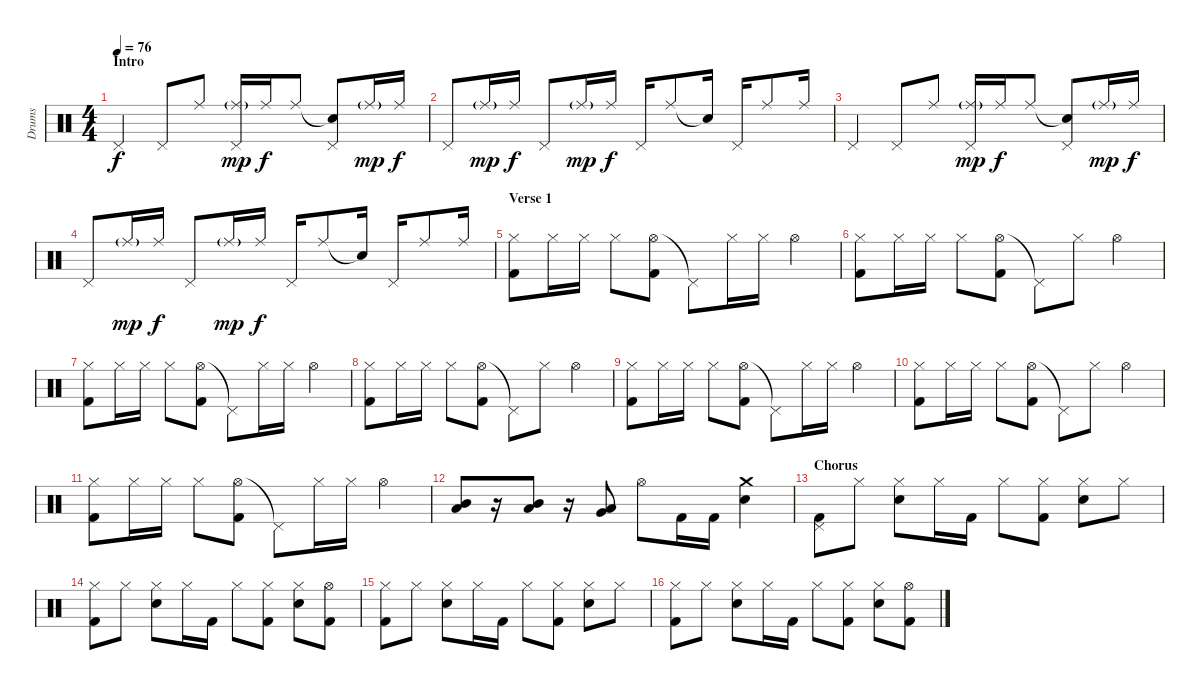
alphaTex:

\track ("Drums" "Drums") {instrument percussion}
\staff {score}
\articulation defaults
\ts (4 4)
\section ("" "Intro")
\tempo 76
\clef neutral
\ks c "Pedal Hi-Hat (hit)".4{dy f} "Pedal Hi-Hat (hit)".8 "Ride (middle)".8
("Ride (middle)"{g} "Pedal Hi-Hat (hit)").16{dy mp} "Ride (middle)".16{dy f} "Ride (middle)".8 ("Snare (hit)"{t} "Pedal Hi-Hat (hit)").8 "Ride (middle)"{g}.16{dy mp} "Ride (middle)".16{dy f} |
"Pedal Hi-Hat (hit)".8 "Ride (middle)"{g}.16{dy mp} "Ride (middle)".16{dy f} "Pedal Hi-Hat (hit)".8 "Ride (middle)"{g}.16{dy mp} "Ride (middle)".16{dy f} "Pedal Hi-Hat (hit)".16 "Ride (middle)".8 "Snare (hit)"{t}.16 "Pedal Hi-Hat (hit)".16 "Ride (middle)".8 "Ride (middle)".16 |
"Pedal Hi-Hat (hit)".4 "Pedal Hi-Hat (hit)".8 "Ride (middle)".8 ("Ride (middle)"{g} "Pedal Hi-Hat (hit)").16{dy mp} "Ride (middle)".16{dy f} "Ride (middle)".8 ("Snare (hit)"{t} "Pedal Hi-Hat (hit)").8 "Ride (middle)"{g}.16{dy mp} "Ride (middle)".16{dy f} |
"Pedal Hi-Hat (hit)".8 "Ride (middle)"{g}.16{dy mp} "Ride (middle)".16{dy f} "Pedal Hi-Hat (hit)".8 "Ride (middle)"{g}.16{dy mp} "Ride (middle)".16{dy f} "Pedal Hi-Hat (hit)".16 "Ride (middle)".8 "Snare (hit)"{t}.16 "Pedal Hi-Hat (hit)".16 "Ride (middle)".8 "Ride (middle)".16 |
\section ("" "Verse 1")
("Hi-Hat (closed)" "Kick (hit) 2").8 "Hi-Hat (closed)".16 "Hi-Hat (closed)".16 "Hi-Hat (closed)".8 ("Hi-Hat (open)" "Kick (hit) 2").8 "Pedal Hi-Hat (hit)"{t}.8 "Hi-Hat (closed)".16 "Hi-Hat (closed)".16 "Hi-Hat (open)".4 |
("Hi-Hat (closed)" "Kick (hit) 2").8 "Hi-Hat (closed)".16 "Hi-Hat (closed)".16 "Hi-Hat (closed)".8 ("Hi-Hat (open)" "Kick (hit) 2").8 "Pedal Hi-Hat (hit)"{t}.8 "Hi-Hat (closed)".8 "Hi-Hat (open)".4 |
("Hi-Hat (closed)" "Kick (hit) 2").8 "Hi-Hat (closed)".16 "Hi-Hat (closed)".16 "Hi-Hat (closed)".8 ("Hi-Hat (open)" "Kick (hit) 2").8 "Pedal Hi-Hat (hit)"{t}.8 "Hi-Hat (closed)".16 "Hi-Hat (closed)".16 "Hi-Hat (open)".4 |
("Hi-Hat (closed)" "Kick (hit) 2").8 "Hi-Hat (closed)".16 "Hi-Hat (closed)".16 "Hi-Hat (closed)".8 ("Hi-Hat (open)" "Kick (hit) 2").8 "Pedal Hi-Hat (hit)"{t}.8 "Hi-Hat (closed)".8 "Hi-Hat (open)".4 |
("Hi-Hat (closed)" "Kick (hit) 2").8 "Hi-Hat (closed)".16 "Hi-Hat (closed)".16 "Hi-Hat (closed)".8 ("Hi-Hat (open)" "Kick (hit) 2").8 "Pedal Hi-Hat (hit)"{t}.8 "Hi-Hat (closed)".16 "Hi-Hat (closed)".16 "Hi-Hat (open)".4 |
("Hi-Hat (closed)" "Kick (hit) 2").8 "Hi-Hat (closed)".16 "Hi-Hat (closed)".16 "Hi-Hat (closed)".8 ("Hi-Hat (open)" "Kick (hit) 2").8 "Pedal Hi-Hat (hit)"{t}.8 "Hi-Hat (closed)".8 "Hi-Hat (open)".4 |
("Hi-Hat (closed)" "Kick (hit) 2").8 "Hi-Hat (closed)".16 "Hi-Hat (closed)".16 "Hi-Hat (closed)".8 ("Hi-Hat (open)" "Kick (hit) 2").8 "Pedal Hi-Hat (hit)"{t}.8 "Hi-Hat (closed)".16 "Hi-Hat (closed)".16 "Hi-Hat (open)".4 |
("Low Tom (hit)" "Mid Tom (hit)").8 r.16 ("Low Tom (hit)" "Mid Tom (hit)").8 r.16 ("Very Low Tom (hit)" "Low Tom (hit)").8 "Hi-Hat (open)".8 "Kick (hit) 2".16 "Kick (hit) 2".16 ("Crash medium (hit)" "Electric Snare (hit)").4 |
\section ("" "Chorus")
("Pedal Hi-Hat (hit)" "Kick (hit) 2").8 "Hi-Hat (closed)".8 ("Hi-Hat (closed)" "Electric Snare (hit)").8 "Hi-Hat (closed)".16 "Kick (hit) 2".16 "Hi-Hat (closed)".8 ("Hi-Hat (closed)" "Kick (hit) 2").8 ("Hi-Hat (closed)" "Electric Snare (hit)").8 "Hi-Hat (closed)".8 |
("Hi-Hat (closed)" "Kick (hit) 2").8 "Hi-Hat (closed)".8 ("Hi-Hat (closed)" "Electric Snare (hit)").8 "Hi-Hat (closed)".16 "Kick (hit) 2".16 "Hi-Hat (closed)".8 ("Hi-Hat (closed)" "Kick (hit) 2").8 ("Hi-Hat (closed)" "Electric Snare (hit)").8 ("Hi-Hat (open)" "Kick (hit) 2").8 |
("Hi-Hat (closed)" "Kick (hit) 2").8 "Hi-Hat (closed)".8 ("Hi-Hat (closed)" "Electric Snare (hit)").8 "Hi-Hat (closed)".16 "Kick (hit) 2".16 "Hi-Hat (closed)".8 ("Hi-Hat (closed)" "Kick (hit) 2").8 ("Hi-Hat (closed)" "Electric Snare (hit)").8 "Hi-Hat (closed)".8 |
("Hi-Hat (closed)" "Kick (hit) 2").8 "Hi-Hat (closed)".8 ("Hi-Hat (closed)" "Electric Snare (hit)").8 "Hi-Hat (closed)".16 "Kick (hit) 2".16 "Hi-Hat (closed)".8 ("Hi-Hat (closed)" "Kick (hit) 2").8 ("Hi-Hat (closed)" "Electric Snare (hit)").8 ("Hi-Hat (open)" "Kick (hit) 2").8
